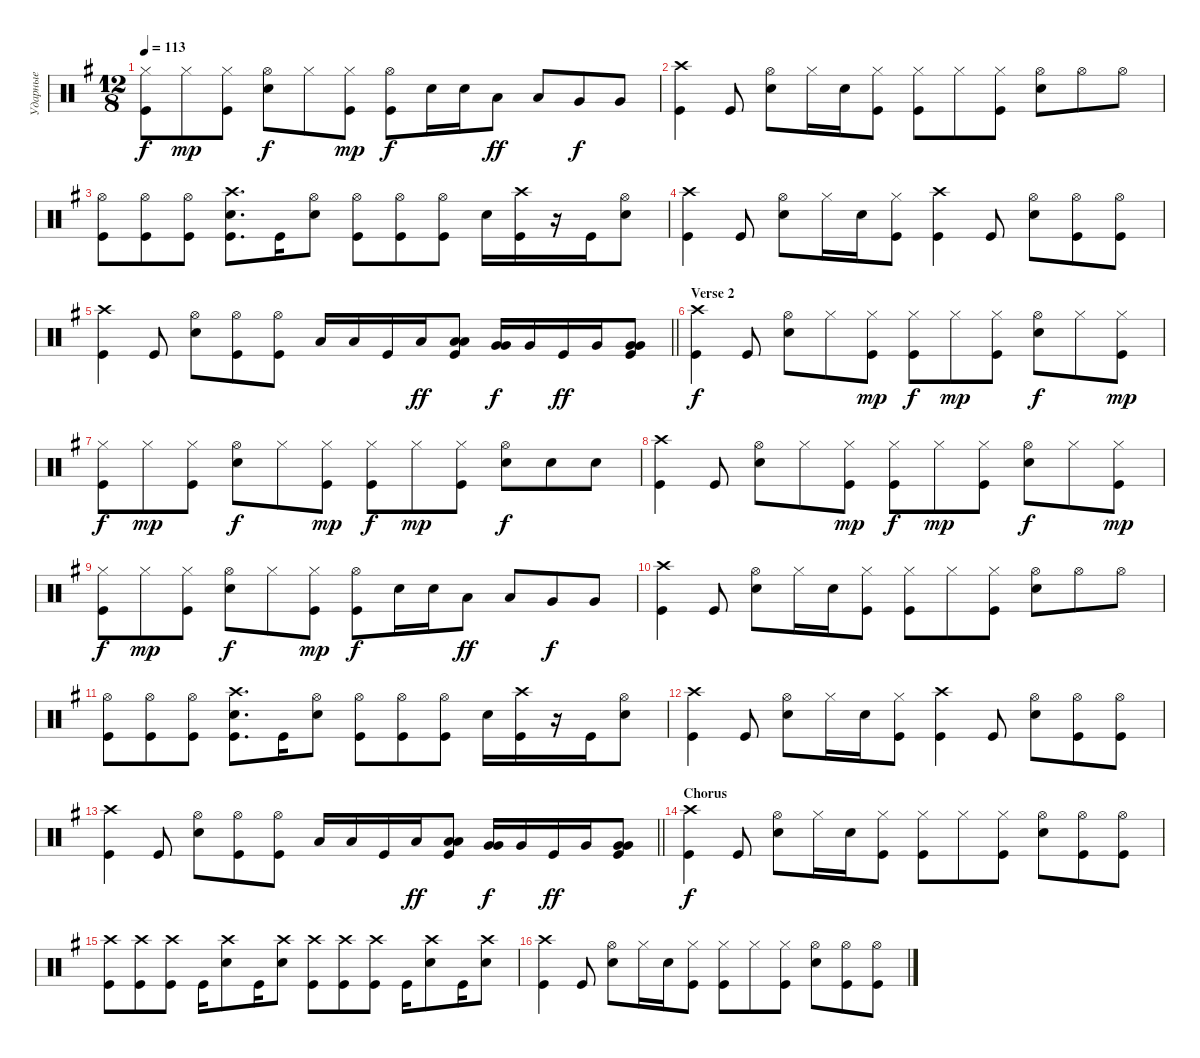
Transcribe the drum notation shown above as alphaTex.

\track ("Ударные" "Ударные") {instrument percussion}
\staff {score}
\articulation defaults
\ts (12 8)
\tempo 113
\clef neutral
\ks eminor
("Kick (hit)" "Hi-Hat (closed)").8{dy f} "Hi-Hat (closed)".8{dy mp} ("Hi-Hat (closed)" "Kick (hit)").8 ("Snare (hit) 2" "Hi-Hat (open)").8{dy f} "Hi-Hat (closed)".8 ("Hi-Hat (closed)" "Kick (hit)").8{dy mp} ("Hi-Hat (open)" "Kick (hit)").8{dy f} "Snare (hit) 2".16 "Snare (hit) 2".16 "Low Tom (hit)".8{dy ff} "Low Tom (hit)".8 "Very Low Tom (hit)".8{bd 120 dy f} "Very Low Tom (hit)".8{bd 60} |
("Kick (hit)" "Crash high (hit)").4 "Kick (hit)".8 ("Snare (hit) 2" "Hi-Hat (open)").8 "Hi-Hat (closed)".16 "Snare (hit) 2".16 ("Hi-Hat (closed)" "Kick (hit)").8 ("Kick (hit)" "Hi-Hat (closed)").8 "Hi-Hat (closed)".8 ("Kick (hit)" "Hi-Hat (closed)").8 ("Snare (hit) 2" "Hi-Hat (open)").8 "Hi-Hat (open)".8 "Hi-Hat (open)".8 |
("Kick (hit)" "Hi-Hat (open)").8 ("Kick (hit)" "Hi-Hat (open)").8 ("Kick (hit)" "Hi-Hat (open)").8 ("Kick (hit)" "Snare (hit) 2" "Crash high (hit)").8{d} "Kick (hit)".16 ("Snare (hit) 2" "Hi-Hat (open)").8 ("Kick (hit)" "Hi-Hat (open)").8 ("Kick (hit)" "Hi-Hat (open)").8 ("Kick (hit)" "Hi-Hat (open)").8 "Snare (hit) 2".16 ("Kick (hit)" "Crash high (hit)").16 r.16 "Kick (hit)".16 ("Snare (hit) 2" "Hi-Hat (open)").8 |
("Kick (hit)" "Crash high (hit)").4 "Kick (hit)".8 ("Snare (hit) 2" "Hi-Hat (open)").8 "Hi-Hat (closed)".16 "Snare (hit) 2".16 ("Hi-Hat (closed)" "Kick (hit)").8 ("Kick (hit)" "Crash high (hit)").4 "Kick (hit)".8 ("Snare (hit) 2" "Hi-Hat (open)").8 ("Hi-Hat (open)" "Kick (hit)").8 ("Hi-Hat (open)" "Kick (hit)").8 |
\barLineRight lightlight
("Kick (hit)" "Crash high (hit)").4 "Kick (hit)".8 ("Snare (hit) 2" "Hi-Hat (open)").8 ("Kick (hit)" "Hi-Hat (open)").8 ("Kick (hit)" "Hi-Hat (open)").8 "Low Tom (hit)".16 "Low Tom (hit)".16 "Kick (hit)".16 "Low Tom (hit)".16{dy ff} ("Low Tom (hit)" "Low Tom (hit)" "Kick (hit)").8{bd 120} ("Very Low Tom (hit)" "Very Low Tom (hit)").16{bd 120 dy f} "Very Low Tom (hit)".16 "Kick (hit)".16{dy ff} "Very Low Tom (hit)".16 ("Very Low Tom (hit)" "Very Low Tom (hit)" "Kick (hit)").8{bd 120} |
\section ("" "Verse 2")
("Kick (hit)" "Crash high (hit)").4{dy f} "Kick (hit)".8 ("Snare (hit) 2" "Hi-Hat (open)").8 "Hi-Hat (closed)".8 ("Hi-Hat (closed)" "Kick (hit)").8{dy mp} ("Kick (hit)" "Hi-Hat (closed)").8{dy f} "Hi-Hat (closed)".8{dy mp} ("Hi-Hat (closed)" "Kick (hit)").8 ("Snare (hit) 2" "Hi-Hat (open)").8{dy f} "Hi-Hat (closed)".8 ("Hi-Hat (closed)" "Kick (hit)").8{dy mp} |
("Kick (hit)" "Hi-Hat (closed)").8{dy f} "Hi-Hat (closed)".8{dy mp} ("Hi-Hat (closed)" "Kick (hit)").8 ("Snare (hit) 2" "Hi-Hat (open)").8{dy f} "Hi-Hat (closed)".8 ("Hi-Hat (closed)" "Kick (hit)").8{dy mp} ("Kick (hit)" "Hi-Hat (closed)").8{dy f} "Hi-Hat (closed)".8{dy mp} ("Hi-Hat (closed)" "Kick (hit)").8 ("Snare (hit) 2" "Hi-Hat (open)").8{dy f} "Snare (hit) 2".8 "Snare (hit) 2".8 |
("Kick (hit)" "Crash high (hit)").4 "Kick (hit)".8 ("Snare (hit) 2" "Hi-Hat (open)").8 "Hi-Hat (closed)".8 ("Hi-Hat (closed)" "Kick (hit)").8{dy mp} ("Kick (hit)" "Hi-Hat (closed)").8{dy f} "Hi-Hat (closed)".8{dy mp} ("Hi-Hat (closed)" "Kick (hit)").8 ("Snare (hit) 2" "Hi-Hat (open)").8{dy f} "Hi-Hat (closed)".8 ("Hi-Hat (closed)" "Kick (hit)").8{dy mp} |
("Kick (hit)" "Hi-Hat (closed)").8{dy f} "Hi-Hat (closed)".8{dy mp} ("Hi-Hat (closed)" "Kick (hit)").8 ("Snare (hit) 2" "Hi-Hat (open)").8{dy f} "Hi-Hat (closed)".8 ("Hi-Hat (closed)" "Kick (hit)").8{dy mp} ("Hi-Hat (open)" "Kick (hit)").8{dy f} "Snare (hit) 2".16 "Snare (hit) 2".16 "Low Tom (hit)".8{dy ff} "Low Tom (hit)".8 "Very Low Tom (hit)".8{bd 120 dy f} "Very Low Tom (hit)".8{bd 60} |
("Kick (hit)" "Crash high (hit)").4 "Kick (hit)".8 ("Snare (hit) 2" "Hi-Hat (open)").8 "Hi-Hat (closed)".16 "Snare (hit) 2".16 ("Hi-Hat (closed)" "Kick (hit)").8 ("Kick (hit)" "Hi-Hat (closed)").8 "Hi-Hat (closed)".8 ("Kick (hit)" "Hi-Hat (closed)").8 ("Snare (hit) 2" "Hi-Hat (open)").8 "Hi-Hat (open)".8 "Hi-Hat (open)".8 |
("Kick (hit)" "Hi-Hat (open)").8 ("Kick (hit)" "Hi-Hat (open)").8 ("Kick (hit)" "Hi-Hat (open)").8 ("Kick (hit)" "Snare (hit) 2" "Crash high (hit)").8{d} "Kick (hit)".16 ("Snare (hit) 2" "Hi-Hat (open)").8 ("Kick (hit)" "Hi-Hat (open)").8 ("Kick (hit)" "Hi-Hat (open)").8 ("Kick (hit)" "Hi-Hat (open)").8 "Snare (hit) 2".16 ("Kick (hit)" "Crash high (hit)").16 r.16 "Kick (hit)".16 ("Snare (hit) 2" "Hi-Hat (open)").8 |
("Kick (hit)" "Crash high (hit)").4 "Kick (hit)".8 ("Snare (hit) 2" "Hi-Hat (open)").8 "Hi-Hat (closed)".16 "Snare (hit) 2".16 ("Hi-Hat (closed)" "Kick (hit)").8 ("Kick (hit)" "Crash high (hit)").4 "Kick (hit)".8 ("Snare (hit) 2" "Hi-Hat (open)").8 ("Hi-Hat (open)" "Kick (hit)").8 ("Hi-Hat (open)" "Kick (hit)").8 |
\barLineRight lightlight
("Kick (hit)" "Crash high (hit)").4 "Kick (hit)".8 ("Snare (hit) 2" "Hi-Hat (open)").8 ("Kick (hit)" "Hi-Hat (open)").8 ("Kick (hit)" "Hi-Hat (open)").8 "Low Tom (hit)".16 "Low Tom (hit)".16 "Kick (hit)".16 "Low Tom (hit)".16{dy ff} ("Low Tom (hit)" "Low Tom (hit)" "Kick (hit)").8{bd 120} ("Very Low Tom (hit)" "Very Low Tom (hit)").16{bd 120 dy f} "Very Low Tom (hit)".16 "Kick (hit)".16{dy ff} "Very Low Tom (hit)".16 ("Very Low Tom (hit)" "Very Low Tom (hit)" "Kick (hit)").8{bd 120} |
\section ("" "Chorus")
("Kick (hit)" "Crash high (hit)").4{dy f} "Kick (hit)".8 ("Snare (hit) 2" "Hi-Hat (open)").8 "Hi-Hat (closed)".16 "Snare (hit) 2".16 ("Kick (hit)" "Hi-Hat (closed)").8 ("Kick (hit)" "Hi-Hat (closed)").8 "Hi-Hat (closed)".8 ("Hi-Hat (closed)" "Kick (hit)").8 ("Snare (hit) 2" "Hi-Hat (open)").8 ("Hi-Hat (open)" "Kick (hit)").8 ("Hi-Hat (open)" "Kick (hit)").8 |
("Kick (hit)" "Crash high (hit)").8 ("Kick (hit)" "Crash high (hit)").8 ("Kick (hit)" "Crash high (hit)").8 "Kick (hit)".16 ("Snare (hit) 2" "Crash high (hit)").8 "Kick (hit)".16 ("Snare (hit) 2" "Crash high (hit)").8 ("Kick (hit)" "Crash high (hit)").8 ("Kick (hit)" "Crash high (hit)").8 ("Kick (hit)" "Crash high (hit)").8 "Kick (hit)".16 ("Snare (hit) 2" "Crash high (hit)").8 "Kick (hit)".16 ("Snare (hit) 2" "Crash high (hit)").8 |
("Kick (hit)" "Crash high (hit)").4 "Kick (hit)".8 ("Snare (hit) 2" "Hi-Hat (open)").8 "Hi-Hat (closed)".16 "Snare (hit) 2".16 ("Kick (hit)" "Hi-Hat (closed)").8 ("Kick (hit)" "Hi-Hat (closed)").8 "Hi-Hat (closed)".8 ("Hi-Hat (closed)" "Kick (hit)").8 ("Snare (hit) 2" "Hi-Hat (open)").8 ("Hi-Hat (open)" "Kick (hit)").8 ("Hi-Hat (open)" "Kick (hit)").8
